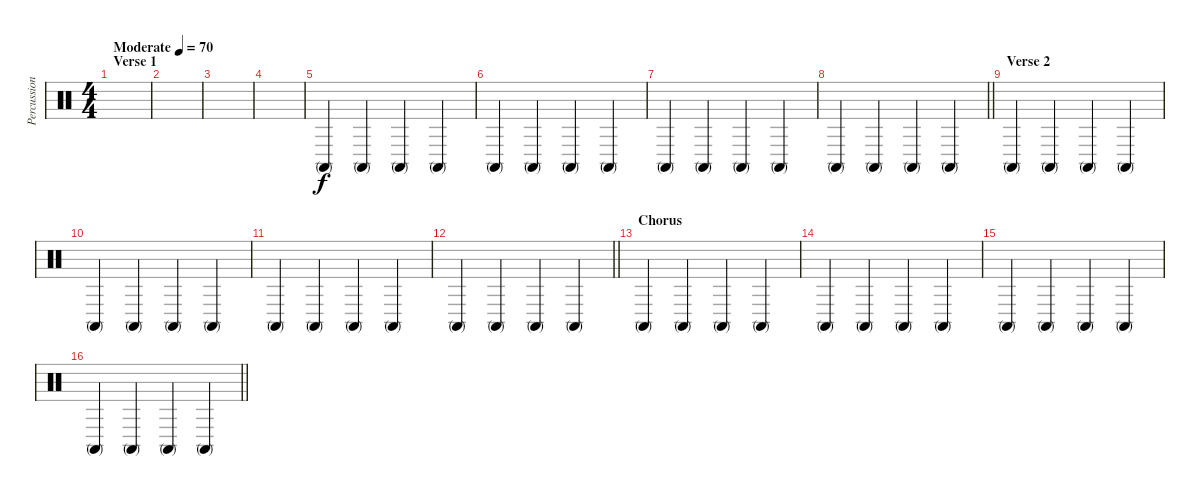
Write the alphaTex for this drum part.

\track ("Percussion" "Percussion") {instrument percussion}
\staff {score}
\articulation defaults
\ts (4 4)
\section ("" "Verse 1")
\tempo (70 "Moderate")
\clef neutral
\ks c
|
|
|
|
"Conga high (mute)".4 "Conga high (mute)".4 "Conga high (mute)".4 "Conga high (mute)".4 |
"Conga high (mute)".4 "Conga high (mute)".4 "Conga high (mute)".4 "Conga high (mute)".4 |
"Conga high (mute)".4 "Conga high (mute)".4 "Conga high (mute)".4 "Conga high (mute)".4 |
\barLineRight lightlight "Conga high (mute)".4 "Conga high (mute)".4 "Conga high (mute)".4 "Conga high (mute)".4
|
\section ("" "Verse 2")
"Conga high (mute)".4 "Conga high (mute)".4 "Conga high (mute)".4 "Conga high (mute)".4 |
"Conga high (mute)".4 "Conga high (mute)".4 "Conga high (mute)".4 "Conga high (mute)".4 |
"Conga high (mute)".4 "Conga high (mute)".4 "Conga high (mute)".4 "Conga high (mute)".4 |
\barLineRight lightlight "Conga high (mute)".4 "Conga high (mute)".4 "Conga high (mute)".4 "Conga high (mute)".4
|
\section ("" "Chorus")
"Conga high (mute)".4 "Conga high (mute)".4 "Conga high (mute)".4 "Conga high (mute)".4 |
"Conga high (mute)".4 "Conga high (mute)".4 "Conga high (mute)".4 "Conga high (mute)".4 |
"Conga high (mute)".4 "Conga high (mute)".4 "Conga high (mute)".4 "Conga high (mute)".4 |
\barLineRight lightlight "Conga high (mute)".4 "Conga high (mute)".4 "Conga high (mute)".4 "Conga high (mute)".4
